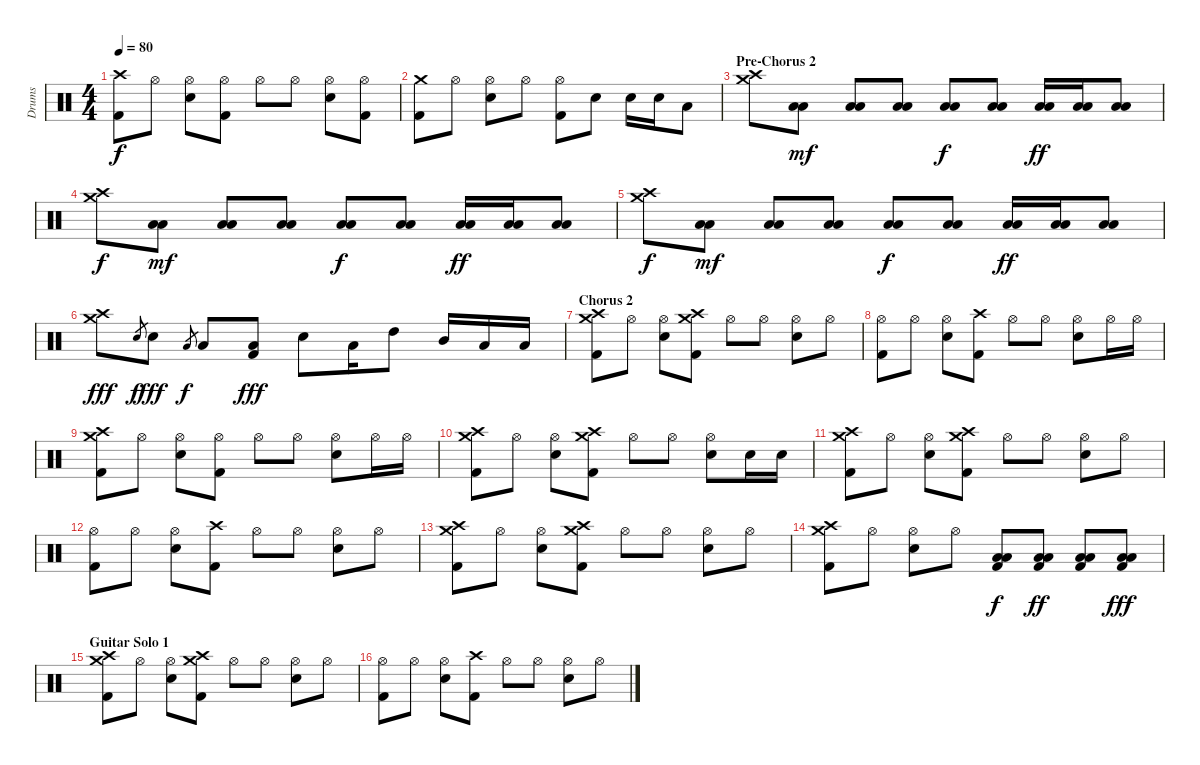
\track ("Drums" "Drums") {instrument percussion}
\staff {score}
\articulation defaults
\ts (4 4)
\tempo 80
\clef neutral
\ks c
("Crash high (hit)" "Kick (hit) 2").8{dy f} "Hi-Hat (open)".8 ("Hi-Hat (open)" "Snare (hit) 2").8 ("Hi-Hat (open)" "Kick (hit) 2").8 "Hi-Hat (open)".8 "Hi-Hat (open)".8 ("Hi-Hat (open)" "Snare (hit) 2").8 ("Hi-Hat (open)" "Kick (hit) 2").8 |
("Crash medium (hit)" "Kick (hit) 2").8 "Hi-Hat (open)".8 ("Hi-Hat (open)" "Snare (hit) 2").8 "Hi-Hat (open)".8 ("Hi-Hat (open)" "Kick (hit) 2").8 "Snare (hit) 2".8 "Snare (hit) 2".16 "Snare (hit) 2".16 "Low Floor Tom (hit)".8 |
\section ("" "Pre-Chorus 2")
("Crash medium (hit)" "Crash high (hit)").8 ("Low Tom (hit)" "Low Floor Tom (hit)").8{dy mf} ("Low Tom (hit)" "Low Floor Tom (hit)").8 ("Low Tom (hit)" "Low Floor Tom (hit)").8 ("Low Tom (hit)" "Low Floor Tom (hit)").8{dy f} ("Low Tom (hit)" "Low Floor Tom (hit)").8 ("Low Tom (hit)" "Low Floor Tom (hit)").16{dy ff} ("Low Tom (hit)" "Low Floor Tom (hit)").16 ("Low Tom (hit)" "Low Floor Tom (hit)").8 |
("Crash medium (hit)" "Crash high (hit)").8{dy f} ("Low Tom (hit)" "Low Floor Tom (hit)").8{dy mf} ("Low Tom (hit)" "Low Floor Tom (hit)").8 ("Low Tom (hit)" "Low Floor Tom (hit)").8 ("Low Tom (hit)" "Low Floor Tom (hit)").8{dy f} ("Low Tom (hit)" "Low Floor Tom (hit)").8 ("Low Tom (hit)" "Low Floor Tom (hit)").16{dy ff} ("Low Tom (hit)" "Low Floor Tom (hit)").16 ("Low Tom (hit)" "Low Floor Tom (hit)").8 |
("Crash medium (hit)" "Crash high (hit)").8{dy f} ("Low Tom (hit)" "Low Floor Tom (hit)").8{dy mf} ("Low Tom (hit)" "Low Floor Tom (hit)").8 ("Low Tom (hit)" "Low Floor Tom (hit)").8 ("Low Tom (hit)" "Low Floor Tom (hit)").8{dy f} ("Low Tom (hit)" "Low Floor Tom (hit)").8 ("Low Tom (hit)" "Low Floor Tom (hit)").16{dy ff} ("Low Tom (hit)" "Low Floor Tom (hit)").16 ("Low Tom (hit)" "Low Floor Tom (hit)").8 |
("Crash medium (hit)" "Crash high (hit)").8{dy fff} "Electric Snare (hit)".8{gr dy f} "Electric Snare (hit)".8{dy fff} "Low Floor Tom (hit)".8{gr dy f} "Low Floor Tom (hit)".8 ("Low Tom (hit)" "Kick (hit) 2").8{dy fff} "Electric Snare (hit)".8 "Low Floor Tom (hit)".16 "High Tom (hit)".8 "Mid Tom (hit)".16 "Low Tom (hit)".16 "Low Floor Tom (hit)".16 |
\section ("" "Chorus 2")
("Crash high (hit)" "Crash medium (hit)" "Kick (hit) 2").8 "Hi-Hat (open)".8 ("Hi-Hat (open)" "Electric Snare (hit)").8 ("Crash high (hit)" "Crash medium (hit)" "Kick (hit) 2").8 "Hi-Hat (open)".8 "Hi-Hat (open)".8 ("Hi-Hat (open)" "Electric Snare (hit)").8 "Hi-Hat (open)".8 |
("Hi-Hat (open)" "Kick (hit) 2").8 "Hi-Hat (open)".8 ("Hi-Hat (open)" "Electric Snare (hit)").8 ("Crash high (hit)" "Kick (hit) 2").8 "Hi-Hat (open)".8 "Hi-Hat (open)".8 ("Hi-Hat (open)" "Electric Snare (hit)").8 "Hi-Hat (open)".16 "Hi-Hat (open)".16 |
("Crash high (hit)" "Crash medium (hit)" "Kick (hit) 2").8 "Hi-Hat (open)".8 ("Hi-Hat (open)" "Electric Snare (hit)").8 ("Hi-Hat (open)" "Kick (hit) 2").8 "Hi-Hat (open)".8 "Hi-Hat (open)".8 ("Hi-Hat (open)" "Electric Snare (hit)").8 "Hi-Hat (open)".16 "Hi-Hat (open)".16 |
("Crash high (hit)" "Crash medium (hit)" "Kick (hit) 2").8 "Hi-Hat (open)".8 ("Hi-Hat (open)" "Electric Snare (hit)").8 ("Crash high (hit)" "Crash medium (hit)" "Kick (hit) 2").8 "Hi-Hat (open)".8 "Hi-Hat (open)".8 ("Hi-Hat (open)" "Electric Snare (hit)").8 "Electric Snare (hit)".16 "Electric Snare (hit)".16 |
("Crash high (hit)" "Crash medium (hit)" "Kick (hit) 2").8 "Hi-Hat (open)".8 ("Hi-Hat (open)" "Electric Snare (hit)").8 ("Crash high (hit)" "Crash medium (hit)" "Kick (hit) 2").8 "Hi-Hat (open)".8 "Hi-Hat (open)".8 ("Hi-Hat (open)" "Electric Snare (hit)").8 "Hi-Hat (open)".8 |
("Hi-Hat (open)" "Kick (hit) 2").8 "Hi-Hat (open)".8 ("Hi-Hat (open)" "Electric Snare (hit)").8 ("Crash high (hit)" "Kick (hit) 2").8 "Hi-Hat (open)".8 "Hi-Hat (open)".8 ("Hi-Hat (open)" "Electric Snare (hit)").8 "Hi-Hat (open)".8 |
("Crash high (hit)" "Crash medium (hit)" "Kick (hit) 2").8 "Hi-Hat (open)".8 ("Hi-Hat (open)" "Electric Snare (hit)").8 ("Crash high (hit)" "Crash medium (hit)" "Kick (hit) 2").8 "Hi-Hat (open)".8 "Hi-Hat (open)".8 ("Hi-Hat (open)" "Electric Snare (hit)").8 "Hi-Hat (open)".8 |
("Crash high (hit)" "Crash medium (hit)" "Kick (hit) 2").8 "Hi-Hat (open)".8 ("Hi-Hat (open)" "Electric Snare (hit)").8 "Hi-Hat (open)".8 ("Low Tom (hit)" "Low Floor Tom (hit)" "Kick (hit) 2").8{dy f} ("Low Tom (hit)" "Low Floor Tom (hit)" "Kick (hit) 2").8{dy ff} ("Low Tom (hit)" "Low Floor Tom (hit)" "Kick (hit) 2").8 ("Low Tom (hit)" "Low Floor Tom (hit)" "Kick (hit) 2").8{dy fff} |
\section ("" "Guitar Solo 1")
("Crash high (hit)" "Crash medium (hit)" "Kick (hit) 2").8 "Hi-Hat (open)".8 ("Hi-Hat (open)" "Electric Snare (hit)").8 ("Crash high (hit)" "Crash medium (hit)" "Kick (hit) 2").8 "Hi-Hat (open)".8 "Hi-Hat (open)".8 ("Hi-Hat (open)" "Electric Snare (hit)").8 "Hi-Hat (open)".8 |
("Hi-Hat (open)" "Kick (hit) 2").8 "Hi-Hat (open)".8 ("Hi-Hat (open)" "Electric Snare (hit)").8 ("Crash high (hit)" "Kick (hit) 2").8 "Hi-Hat (open)".8 "Hi-Hat (open)".8 ("Hi-Hat (open)" "Electric Snare (hit)").8 "Hi-Hat (open)".8
